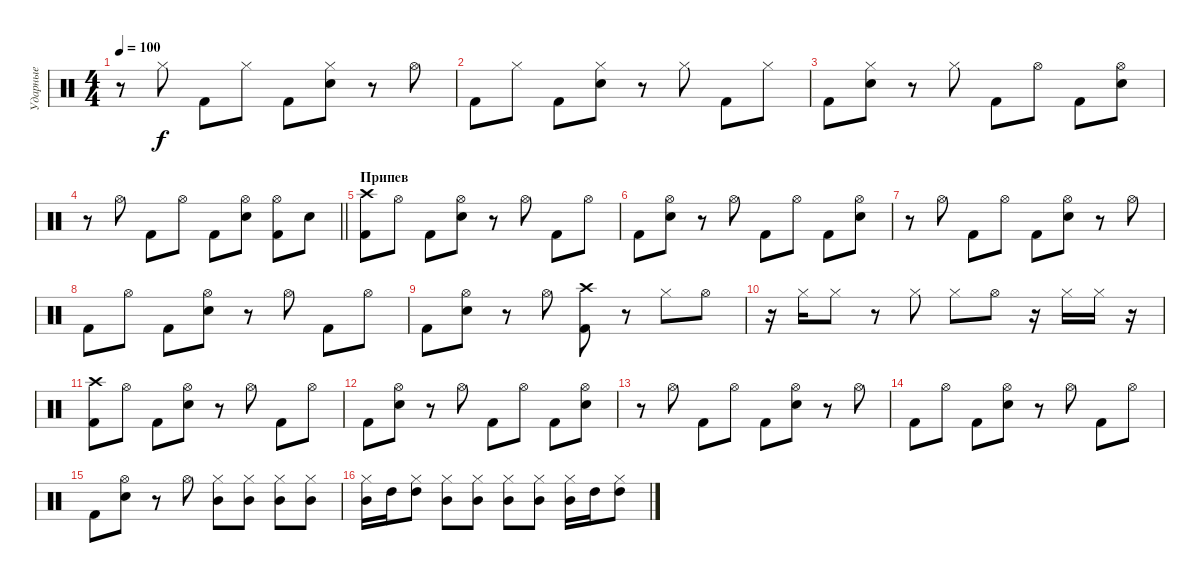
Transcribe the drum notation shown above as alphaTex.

\track ("Ударные" "Ударные") {instrument percussion}
\staff {score}
\articulation defaults
\ts (4 4)
\tempo 100
\clef neutral
\ks c
r.8{dy f} "Hi-Hat (closed)".8 "Kick (hit) 2".8 "Hi-Hat (closed)".8 "Kick (hit) 2".8 ("Snare (hit) 2" "Hi-Hat (closed)").8 r.8 "Hi-Hat (open)".8 |
"Kick (hit) 2".8 "Hi-Hat (closed)".8 "Kick (hit) 2".8 ("Snare (hit) 2" "Hi-Hat (closed)").8 r.8 "Hi-Hat (closed)".8 "Kick (hit) 2".8 "Hi-Hat (closed)".8 |
"Kick (hit) 2".8 ("Snare (hit) 2" "Hi-Hat (closed)").8 r.8 "Hi-Hat (closed)".8 "Kick (hit) 2".8 "Hi-Hat (open)".8 "Kick (hit) 2".8 ("Snare (hit) 2" "Hi-Hat (open)").8 |
\barLineRight lightlight
r.8 "Hi-Hat (open)".8 "Kick (hit) 2".8 "Hi-Hat (open)".8 "Kick (hit) 2".8 ("Snare (hit) 2" "Hi-Hat (open)").8 ("Kick (hit) 2" "Hi-Hat (open)").8 "Snare (hit) 2".8 |
\section ("" "Припев")
("Kick (hit) 2" "Crash high (hit)").8 "Hi-Hat (open)".8 "Kick (hit) 2".8 ("Snare (hit) 2" "Hi-Hat (open)").8 r.8 "Hi-Hat (open)".8 "Kick (hit) 2".8 "Hi-Hat (open)".8 |
"Kick (hit) 2".8 ("Snare (hit) 2" "Hi-Hat (open)").8 r.8 "Hi-Hat (open)".8 "Kick (hit) 2".8 "Hi-Hat (open)".8 "Kick (hit) 2".8 ("Snare (hit) 2" "Hi-Hat (open)").8 |
r.8 "Hi-Hat (open)".8 "Kick (hit) 2".8 "Hi-Hat (open)".8 "Kick (hit) 2".8 ("Snare (hit) 2" "Hi-Hat (open)").8 r.8 "Hi-Hat (open)".8 |
"Kick (hit) 2".8 "Hi-Hat (open)".8 "Kick (hit) 2".8 ("Snare (hit) 2" "Hi-Hat (open)").8 r.8 "Hi-Hat (open)".8 "Kick (hit) 2".8 "Hi-Hat (open)".8 |
"Kick (hit) 2".8 ("Snare (hit) 2" "Hi-Hat (open)").8 r.8 "Hi-Hat (open)".8 ("Kick (hit) 2" "Crash high (hit)").8 r.8 "Hi-Hat (closed)".8 "Hi-Hat (open)".8 |
r.16 "Hi-Hat (closed)".16 "Hi-Hat (closed)".8 r.8 "Hi-Hat (closed)".8 "Hi-Hat (closed)".8 "Hi-Hat (open)".8 r.16 "Hi-Hat (closed)".16 "Hi-Hat (closed)".16 r.16 |
("Kick (hit) 2" "Crash high (hit)").8 "Hi-Hat (open)".8 "Kick (hit) 2".8 ("Snare (hit) 2" "Hi-Hat (open)").8 r.8 "Hi-Hat (open)".8 "Kick (hit) 2".8 "Hi-Hat (open)".8 |
"Kick (hit) 2".8 ("Snare (hit) 2" "Hi-Hat (open)").8 r.8 "Hi-Hat (open)".8 "Kick (hit) 2".8 "Hi-Hat (open)".8 "Kick (hit) 2".8 ("Snare (hit) 2" "Hi-Hat (open)").8 |
r.8 "Hi-Hat (open)".8 "Kick (hit) 2".8 "Hi-Hat (open)".8 "Kick (hit) 2".8 ("Snare (hit) 2" "Hi-Hat (open)").8 r.8 "Hi-Hat (open)".8 |
"Kick (hit) 2".8 "Hi-Hat (open)".8 "Kick (hit) 2".8 ("Snare (hit) 2" "Hi-Hat (open)").8 r.8 "Hi-Hat (open)".8 "Kick (hit) 2".8 "Hi-Hat (open)".8 |
"Kick (hit) 2".8 ("Snare (hit) 2" "Hi-Hat (open)").8 r.8 "Hi-Hat (open)".8 ("Mid Tom (hit)" "Hi-Hat (closed)").8 ("Mid Tom (hit)" "Hi-Hat (closed)").8 ("Mid Tom (hit)" "Hi-Hat (closed)").8 ("Mid Tom (hit)" "Hi-Hat (closed)").8 |
("Mid Tom (hit)" "Hi-Hat (closed)").16 "High Tom (hit)".16 ("High Tom (hit)" "Hi-Hat (closed)").8 ("Mid Tom (hit)" "Hi-Hat (closed)").8 ("Mid Tom (hit)" "Hi-Hat (closed)").8 ("Mid Tom (hit)" "Hi-Hat (closed)").8 ("Mid Tom (hit)" "Hi-Hat (closed)").8 ("Mid Tom (hit)" "Hi-Hat (closed)").16 "High Tom (hit)".16 ("High Tom (hit)" "Hi-Hat (closed)").8
